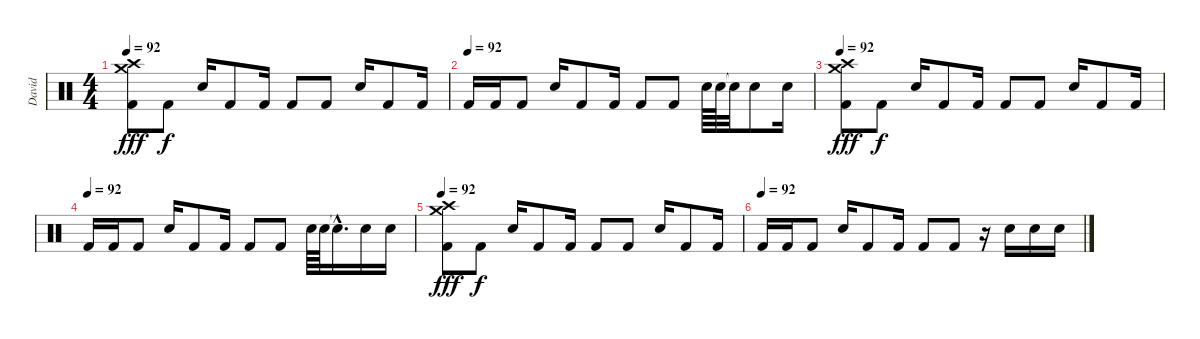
\track ("David" "David") {instrument percussion}
\staff {score}
\articulation defaults
\ts (4 4)
\tempo 92
\clef neutral
\ks c
("Crash medium (hit)" "Crash high (hit)" "Kick (hit) 2").8{dy fff} "Kick (hit) 2".8{dy f} "Snare (hit) 2".16 "Kick (hit) 2".8 "Kick (hit) 2".16 "Kick (hit) 2".8 "Kick (hit) 2".8 "Snare (hit) 2".16 "Kick (hit) 2".8 "Kick (hit) 2".16 |
\tempo (92)
"Kick (hit) 2".16 "Kick (hit) 2".16 "Kick (hit) 2".8 "Snare (hit) 2".16 "Kick (hit) 2".8 "Kick (hit) 2".16 "Kick (hit) 2".8 "Kick (hit) 2".8 "Snare (hit) 2".64 "Snare (hit) 2".64 "Snare (hit)"{t}.32 "Snare (hit) 2".8 "Snare (hit) 2".16 |
\tempo 92
("Crash medium (hit)" "Crash high (hit)" "Kick (hit) 2").8{dy fff} "Kick (hit) 2".8{dy f} "Snare (hit) 2".16 "Kick (hit) 2".8 "Kick (hit) 2".16 "Kick (hit) 2".8 "Kick (hit) 2".8 "Snare (hit) 2".16 "Kick (hit) 2".8 "Kick (hit) 2".16 |
\tempo (92)
"Kick (hit) 2".16 "Kick (hit) 2".16 "Kick (hit) 2".8 "Snare (hit) 2".16 "Kick (hit) 2".8 "Kick (hit) 2".16 "Kick (hit) 2".8 "Kick (hit) 2".8 "Snare (hit) 2".64 "Snare (hit) 2".64 "Snare (hit)"{hac t}.16{d} "Snare (hit) 2".16 "Snare (hit) 2".16 |
\tempo 92
("Crash medium (hit)" "Crash high (hit)" "Kick (hit) 2").8{dy fff} "Kick (hit) 2".8{dy f} "Snare (hit) 2".16 "Kick (hit) 2".8 "Kick (hit) 2".16 "Kick (hit) 2".8 "Kick (hit) 2".8 "Snare (hit) 2".16 "Kick (hit) 2".8 "Kick (hit) 2".16 |
\tempo (92)
"Kick (hit) 2".16 "Kick (hit) 2".16 "Kick (hit) 2".8 "Snare (hit) 2".16 "Kick (hit) 2".8 "Kick (hit) 2".16 "Kick (hit) 2".8 "Kick (hit) 2".8 r.16 "Snare (hit) 2".16 "Snare (hit) 2".16 "Snare (hit) 2".16
